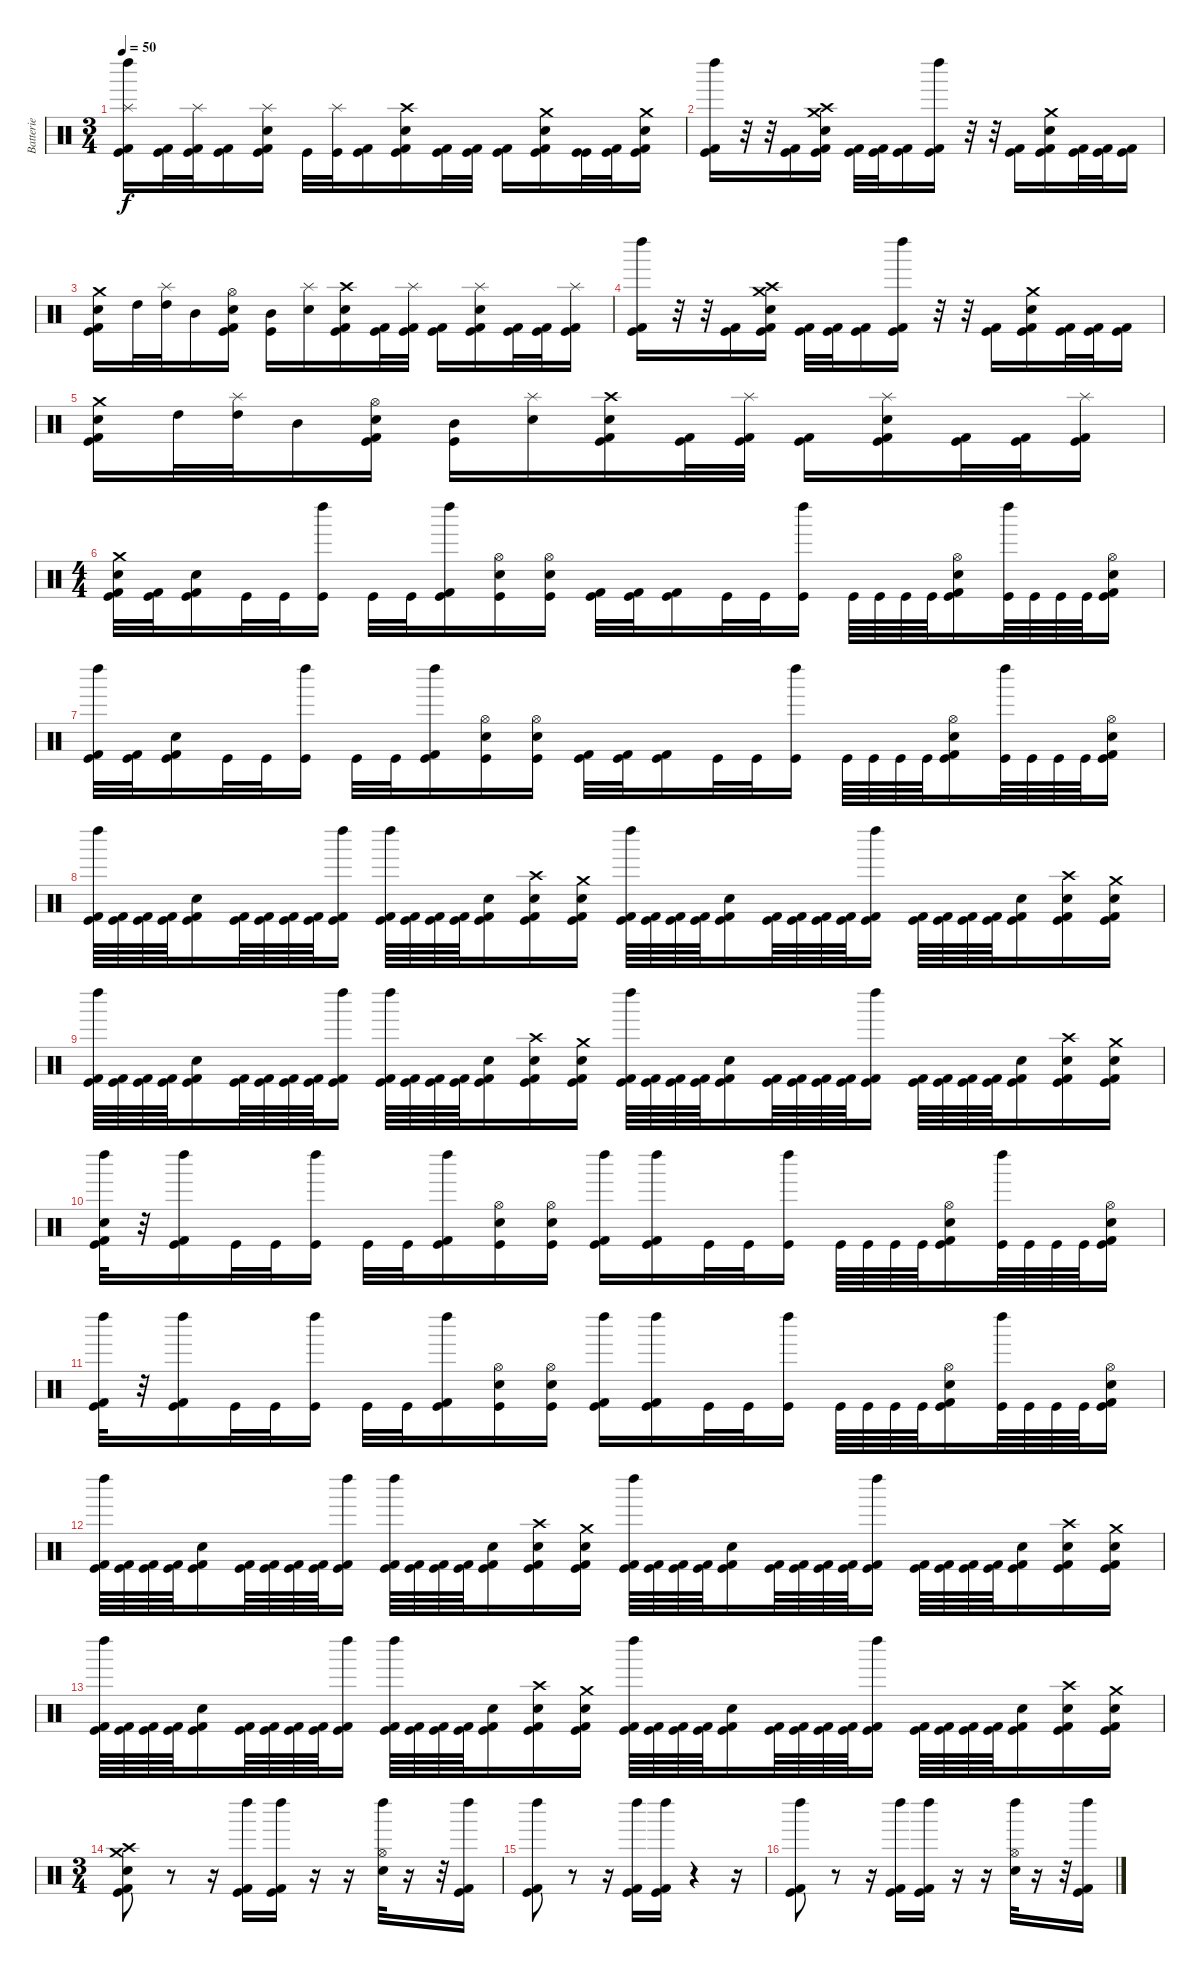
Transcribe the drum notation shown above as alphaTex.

\track ("Batterie" "Batterie") {instrument percussion}
\staff {score}
\articulation defaults
\ts (3 4)
\tempo 50
\clef neutral
\ks c
("Kick (hit)" "Kick (hit) 2" "Left Maraca (hit)" "Splash (hit)").16{dy f} ("Kick (hit)" "Kick (hit) 2").32 ("Kick (hit)" "Kick (hit) 2" "Splash (hit)").32 ("Kick (hit)" "Kick (hit) 2").16 ("Kick (hit)" "Kick (hit) 2" "Electric Snare (hit)" "Splash (hit)").16 "Kick (hit)".32 ("Kick (hit)" "Splash (hit)").32 ("Kick (hit)" "Kick (hit) 2").16 ("Kick (hit)" "Kick (hit) 2" "Electric Snare (hit)" "Crash high (hit)").16 ("Kick (hit)" "Kick (hit) 2").32 ("Kick (hit)" "Kick (hit) 2").32 ("Kick (hit)" "Kick (hit) 2").16 ("Kick (hit)" "Kick (hit) 2" "Electric Snare (hit)" "Crash medium (hit)").16 ("Kick (hit)" "Kick (hit)").32 ("Kick (hit)" "Kick (hit) 2").32 ("Kick (hit)" "Kick (hit) 2" "Electric Snare (hit)" "Crash medium (hit)").16 |
("Kick (hit)" "Kick (hit) 2" "Left Maraca (hit)").16 r.32 r.32 ("Kick (hit)" "Kick (hit) 2").16 ("Kick (hit)" "Kick (hit) 2" "Electric Snare (hit)" "Crash high (hit)" "Crash medium (hit)").16 ("Kick (hit)" "Kick (hit) 2").32 ("Kick (hit)" "Kick (hit) 2").32 ("Kick (hit)" "Kick (hit) 2").16 ("Kick (hit)" "Kick (hit) 2" "Left Maraca (hit)").16 r.32 r.32 ("Kick (hit)" "Kick (hit) 2").16 ("Kick (hit)" "Kick (hit) 2" "Electric Snare (hit)" "Crash medium (hit)").16 ("Kick (hit)" "Kick (hit) 2").32 ("Kick (hit)" "Kick (hit) 2").32 ("Kick (hit)" "Kick (hit) 2").16 |
("Kick (hit)" "Kick (hit) 2" "Electric Snare (hit)" "Crash medium (hit)").16 "High Tom (hit)".32 ("High Tom (hit)" "Splash (hit)").32 "Mid Tom (hit)".16 ("Kick (hit)" "Kick (hit) 2" "Electric Snare (hit)" "Hi-Hat (open)").16 ("Kick (hit)" "Mid Tom (hit)").16 ("Electric Snare (hit)" "Splash (hit)").16 ("Kick (hit)" "Kick (hit) 2" "Electric Snare (hit)" "Crash high (hit)").16 ("Kick (hit)" "Kick (hit) 2").32 ("Kick (hit)" "Kick (hit) 2" "Splash (hit)").32 ("Kick (hit)" "Kick (hit) 2").16 ("Kick (hit)" "Kick (hit) 2" "Electric Snare (hit)" "Splash (hit)").16 ("Kick (hit)" "Kick (hit) 2").32 ("Kick (hit)" "Kick (hit) 2").32 ("Kick (hit)" "Kick (hit) 2" "Splash (hit)").16 |
("Kick (hit)" "Kick (hit) 2" "Left Maraca (hit)").16 r.32 r.32 ("Kick (hit)" "Kick (hit) 2").16 ("Kick (hit)" "Kick (hit) 2" "Electric Snare (hit)" "Crash high (hit)" "Crash medium (hit)").16 ("Kick (hit)" "Kick (hit) 2").32 ("Kick (hit)" "Kick (hit) 2").32 ("Kick (hit)" "Kick (hit) 2").16 ("Kick (hit)" "Kick (hit) 2" "Left Maraca (hit)").16 r.32 r.32 ("Kick (hit)" "Kick (hit) 2").16 ("Kick (hit)" "Kick (hit) 2" "Electric Snare (hit)" "Crash medium (hit)").16 ("Kick (hit)" "Kick (hit) 2").32 ("Kick (hit)" "Kick (hit) 2").32 ("Kick (hit)" "Kick (hit) 2").16 |
("Kick (hit)" "Kick (hit) 2" "Electric Snare (hit)" "Crash medium (hit)").16 "High Tom (hit)".32 ("High Tom (hit)" "Splash (hit)").32 "Mid Tom (hit)".16 ("Kick (hit)" "Kick (hit) 2" "Electric Snare (hit)" "Hi-Hat (open)").16 ("Kick (hit)" "Mid Tom (hit)").16 ("Electric Snare (hit)" "Splash (hit)").16 ("Kick (hit)" "Kick (hit) 2" "Electric Snare (hit)" "Crash high (hit)").16 ("Kick (hit)" "Kick (hit) 2").32 ("Kick (hit)" "Kick (hit) 2" "Splash (hit)").32 ("Kick (hit)" "Kick (hit) 2").16 ("Kick (hit)" "Kick (hit) 2" "Electric Snare (hit)" "Splash (hit)").16 ("Kick (hit)" "Kick (hit) 2").32 ("Kick (hit)" "Kick (hit) 2").32 ("Kick (hit)" "Kick (hit) 2" "Splash (hit)").16 |
\ts (4 4)
("Kick (hit)" "Kick (hit) 2" "Electric Snare (hit)" "Crash medium (hit)").32 ("Kick (hit)" "Kick (hit) 2").32 ("Kick (hit)" "Kick (hit) 2" "Electric Snare (hit)").16 "Kick (hit)".32 "Kick (hit)".32 ("Kick (hit)" "Left Maraca (hit)").16 "Kick (hit)".32 "Kick (hit)".32 ("Kick (hit)" "Kick (hit) 2" "Left Maraca (hit)").16 ("Kick (hit)" "Electric Snare (hit)" "Hi-Hat (open)").16 ("Kick (hit)" "Electric Snare (hit)" "Hi-Hat (open)").16 ("Kick (hit)" "Kick (hit) 2").32 ("Kick (hit)" "Kick (hit) 2").32 ("Kick (hit)" "Kick (hit) 2").16 "Kick (hit)".32 "Kick (hit)".32 ("Kick (hit)" "Left Maraca (hit)").16 "Kick (hit)".64 "Kick (hit)".64 "Kick (hit)".64 "Kick (hit)".64 ("Kick (hit)" "Kick (hit) 2" "Electric Snare (hit)" "Hi-Hat (open)").16 ("Kick (hit)" "Left Maraca (hit)").64 "Kick (hit)".64 "Kick (hit)".64 "Kick (hit)".64 ("Kick (hit)" "Kick (hit) 2" "Electric Snare (hit)" "Hi-Hat (open)").16 |
("Kick (hit)" "Kick (hit) 2" "Left Maraca (hit)").32 ("Kick (hit)" "Kick (hit) 2").32 ("Kick (hit)" "Kick (hit) 2" "Electric Snare (hit)").16 "Kick (hit)".32 "Kick (hit)".32 ("Kick (hit)" "Left Maraca (hit)").16 "Kick (hit)".32 "Kick (hit)".32 ("Kick (hit)" "Kick (hit) 2" "Left Maraca (hit)").16 ("Kick (hit)" "Electric Snare (hit)" "Hi-Hat (open)").16 ("Kick (hit)" "Electric Snare (hit)" "Hi-Hat (open)").16 ("Kick (hit)" "Kick (hit) 2").32 ("Kick (hit)" "Kick (hit) 2").32 ("Kick (hit)" "Kick (hit) 2").16 "Kick (hit)".32 "Kick (hit)".32 ("Kick (hit)" "Left Maraca (hit)").16 "Kick (hit)".64 "Kick (hit)".64 "Kick (hit)".64 "Kick (hit)".64 ("Kick (hit)" "Kick (hit) 2" "Electric Snare (hit)" "Hi-Hat (open)").16 ("Kick (hit)" "Left Maraca (hit)").64 "Kick (hit)".64 "Kick (hit)".64 "Kick (hit)".64 ("Kick (hit)" "Kick (hit) 2" "Electric Snare (hit)" "Hi-Hat (open)").16 |
("Kick (hit)" "Kick (hit) 2" "Left Maraca (hit)").64 ("Kick (hit)" "Kick (hit) 2").64 ("Kick (hit)" "Kick (hit) 2").64 ("Kick (hit)" "Kick (hit) 2").64 ("Kick (hit)" "Kick (hit) 2" "Electric Snare (hit)").16 ("Kick (hit)" "Kick (hit) 2").64 ("Kick (hit)" "Kick (hit) 2").64 ("Kick (hit)" "Kick (hit) 2").64 ("Kick (hit)" "Kick (hit) 2").64 ("Kick (hit)" "Kick (hit) 2" "Left Maraca (hit)").16 ("Kick (hit)" "Kick (hit) 2" "Left Maraca (hit)").64 ("Kick (hit)" "Kick (hit) 2").64 ("Kick (hit)" "Kick (hit) 2").64 ("Kick (hit)" "Kick (hit) 2").64 ("Kick (hit)" "Kick (hit) 2" "Electric Snare (hit)").16 ("Kick (hit)" "Kick (hit) 2" "Electric Snare (hit)" "Crash high (hit)").16 ("Kick (hit)" "Kick (hit) 2" "Electric Snare (hit)" "Crash medium (hit)").16 ("Kick (hit)" "Kick (hit) 2" "Left Maraca (hit)").64 ("Kick (hit)" "Kick (hit) 2").64 ("Kick (hit)" "Kick (hit) 2").64 ("Kick (hit)" "Kick (hit) 2").64 ("Kick (hit)" "Kick (hit) 2" "Electric Snare (hit)").16 ("Kick (hit)" "Kick (hit) 2").64 ("Kick (hit)" "Kick (hit) 2").64 ("Kick (hit)" "Kick (hit) 2").64 ("Kick (hit)" "Kick (hit) 2").64 ("Kick (hit)" "Kick (hit) 2" "Left Maraca (hit)").16 ("Kick (hit)" "Kick (hit) 2").64 ("Kick (hit)" "Kick (hit) 2").64 ("Kick (hit)" "Kick (hit) 2").64 ("Kick (hit)" "Kick (hit) 2").64 ("Kick (hit)" "Kick (hit) 2" "Electric Snare (hit)").16 ("Kick (hit)" "Kick (hit) 2" "Electric Snare (hit)" "Crash high (hit)").16 ("Kick (hit)" "Kick (hit) 2" "Electric Snare (hit)" "Crash medium (hit)").16 |
("Kick (hit)" "Kick (hit) 2" "Left Maraca (hit)").64 ("Kick (hit)" "Kick (hit) 2").64 ("Kick (hit)" "Kick (hit) 2").64 ("Kick (hit)" "Kick (hit) 2").64 ("Kick (hit)" "Kick (hit) 2" "Electric Snare (hit)").16 ("Kick (hit)" "Kick (hit) 2").64 ("Kick (hit)" "Kick (hit) 2").64 ("Kick (hit)" "Kick (hit) 2").64 ("Kick (hit)" "Kick (hit) 2").64 ("Kick (hit)" "Kick (hit) 2" "Left Maraca (hit)").16 ("Kick (hit)" "Kick (hit) 2" "Left Maraca (hit)").64 ("Kick (hit)" "Kick (hit) 2").64 ("Kick (hit)" "Kick (hit) 2").64 ("Kick (hit)" "Kick (hit) 2").64 ("Kick (hit)" "Kick (hit) 2" "Electric Snare (hit)").16 ("Kick (hit)" "Kick (hit) 2" "Electric Snare (hit)" "Crash high (hit)").16 ("Kick (hit)" "Kick (hit) 2" "Electric Snare (hit)" "Crash medium (hit)").16 ("Kick (hit)" "Kick (hit) 2" "Left Maraca (hit)").64 ("Kick (hit)" "Kick (hit) 2").64 ("Kick (hit)" "Kick (hit) 2").64 ("Kick (hit)" "Kick (hit) 2").64 ("Kick (hit)" "Kick (hit) 2" "Electric Snare (hit)").16 ("Kick (hit)" "Kick (hit) 2").64 ("Kick (hit)" "Kick (hit) 2").64 ("Kick (hit)" "Kick (hit) 2").64 ("Kick (hit)" "Kick (hit) 2").64 ("Kick (hit)" "Kick (hit) 2" "Left Maraca (hit)").16 ("Kick (hit)" "Kick (hit) 2").64 ("Kick (hit)" "Kick (hit) 2").64 ("Kick (hit)" "Kick (hit) 2").64 ("Kick (hit)" "Kick (hit) 2").64 ("Kick (hit)" "Kick (hit) 2" "Electric Snare (hit)").16 ("Kick (hit)" "Kick (hit) 2" "Electric Snare (hit)" "Crash high (hit)").16 ("Kick (hit)" "Kick (hit) 2" "Electric Snare (hit)" "Crash medium (hit)").16 |
("Kick (hit)" "Kick (hit) 2" "Electric Snare (hit)" "Left Maraca (hit)").32 r.32 ("Kick (hit)" "Kick (hit) 2" "Left Maraca (hit)").16 "Kick (hit)".32 "Kick (hit)".32 ("Kick (hit)" "Left Maraca (hit)").16 "Kick (hit)".32 "Kick (hit)".32 ("Kick (hit)" "Kick (hit) 2" "Left Maraca (hit)").16 ("Kick (hit)" "Electric Snare (hit)" "Hi-Hat (open)").16 ("Kick (hit)" "Electric Snare (hit)" "Hi-Hat (open)").16 ("Kick (hit)" "Kick (hit) 2" "Left Maraca (hit)").16 ("Kick (hit)" "Kick (hit) 2" "Left Maraca (hit)").16 "Kick (hit)".32 "Kick (hit)".32 ("Kick (hit)" "Left Maraca (hit)").16 "Kick (hit)".64 "Kick (hit)".64 "Kick (hit)".64 "Kick (hit)".64 ("Kick (hit)" "Kick (hit) 2" "Electric Snare (hit)" "Hi-Hat (open)").16 ("Kick (hit)" "Left Maraca (hit)").64 "Kick (hit)".64 "Kick (hit)".64 "Kick (hit)".64 ("Kick (hit)" "Kick (hit) 2" "Electric Snare (hit)" "Hi-Hat (open)").16 |
("Kick (hit)" "Kick (hit) 2" "Left Maraca (hit)").32 r.32 ("Kick (hit)" "Kick (hit) 2" "Left Maraca (hit)").16 "Kick (hit)".32 "Kick (hit)".32 ("Kick (hit)" "Left Maraca (hit)").16 "Kick (hit)".32 "Kick (hit)".32 ("Kick (hit)" "Kick (hit) 2" "Left Maraca (hit)").16 ("Kick (hit)" "Electric Snare (hit)" "Hi-Hat (open)").16 ("Kick (hit)" "Electric Snare (hit)" "Hi-Hat (open)").16 ("Kick (hit)" "Kick (hit) 2" "Left Maraca (hit)").16 ("Kick (hit)" "Kick (hit) 2" "Left Maraca (hit)").16 "Kick (hit)".32 "Kick (hit)".32 ("Kick (hit)" "Left Maraca (hit)").16 "Kick (hit)".64 "Kick (hit)".64 "Kick (hit)".64 "Kick (hit)".64 ("Kick (hit)" "Kick (hit) 2" "Electric Snare (hit)" "Hi-Hat (open)").16 ("Kick (hit)" "Left Maraca (hit)").64 "Kick (hit)".64 "Kick (hit)".64 "Kick (hit)".64 ("Kick (hit)" "Kick (hit) 2" "Electric Snare (hit)" "Hi-Hat (open)").16 |
("Kick (hit)" "Kick (hit) 2" "Left Maraca (hit)").64 ("Kick (hit)" "Kick (hit) 2").64 ("Kick (hit)" "Kick (hit) 2").64 ("Kick (hit)" "Kick (hit) 2").64 ("Kick (hit)" "Kick (hit) 2" "Electric Snare (hit)").16 ("Kick (hit)" "Kick (hit) 2").64 ("Kick (hit)" "Kick (hit) 2").64 ("Kick (hit)" "Kick (hit) 2").64 ("Kick (hit)" "Kick (hit) 2").64 ("Kick (hit)" "Kick (hit) 2" "Left Maraca (hit)").16 ("Kick (hit)" "Kick (hit) 2" "Left Maraca (hit)").64 ("Kick (hit)" "Kick (hit) 2").64 ("Kick (hit)" "Kick (hit) 2").64 ("Kick (hit)" "Kick (hit) 2").64 ("Kick (hit)" "Kick (hit) 2" "Electric Snare (hit)").16 ("Kick (hit)" "Kick (hit) 2" "Electric Snare (hit)" "Crash high (hit)").16 ("Kick (hit)" "Kick (hit) 2" "Electric Snare (hit)" "Crash medium (hit)").16 ("Kick (hit)" "Kick (hit) 2" "Left Maraca (hit)").64 ("Kick (hit)" "Kick (hit) 2").64 ("Kick (hit)" "Kick (hit) 2").64 ("Kick (hit)" "Kick (hit) 2").64 ("Kick (hit)" "Kick (hit) 2" "Electric Snare (hit)").16 ("Kick (hit)" "Kick (hit) 2").64 ("Kick (hit)" "Kick (hit) 2").64 ("Kick (hit)" "Kick (hit) 2").64 ("Kick (hit)" "Kick (hit) 2").64 ("Kick (hit)" "Kick (hit) 2" "Left Maraca (hit)").16 ("Kick (hit)" "Kick (hit) 2").64 ("Kick (hit)" "Kick (hit) 2").64 ("Kick (hit)" "Kick (hit) 2").64 ("Kick (hit)" "Kick (hit) 2").64 ("Kick (hit)" "Kick (hit) 2" "Electric Snare (hit)").16 ("Kick (hit)" "Kick (hit) 2" "Electric Snare (hit)" "Crash high (hit)").16 ("Kick (hit)" "Kick (hit) 2" "Electric Snare (hit)" "Crash medium (hit)").16 |
("Kick (hit)" "Kick (hit) 2" "Left Maraca (hit)").64 ("Kick (hit)" "Kick (hit) 2").64 ("Kick (hit)" "Kick (hit) 2").64 ("Kick (hit)" "Kick (hit) 2").64 ("Kick (hit)" "Kick (hit) 2" "Electric Snare (hit)").16 ("Kick (hit)" "Kick (hit) 2").64 ("Kick (hit)" "Kick (hit) 2").64 ("Kick (hit)" "Kick (hit) 2").64 ("Kick (hit)" "Kick (hit) 2").64 ("Kick (hit)" "Kick (hit) 2" "Left Maraca (hit)").16 ("Kick (hit)" "Kick (hit) 2" "Left Maraca (hit)").64 ("Kick (hit)" "Kick (hit) 2").64 ("Kick (hit)" "Kick (hit) 2").64 ("Kick (hit)" "Kick (hit) 2").64 ("Kick (hit)" "Kick (hit) 2" "Electric Snare (hit)").16 ("Kick (hit)" "Kick (hit) 2" "Electric Snare (hit)" "Crash high (hit)").16 ("Kick (hit)" "Kick (hit) 2" "Electric Snare (hit)" "Crash medium (hit)").16 ("Kick (hit)" "Kick (hit) 2" "Left Maraca (hit)").64 ("Kick (hit)" "Kick (hit) 2").64 ("Kick (hit)" "Kick (hit) 2").64 ("Kick (hit)" "Kick (hit) 2").64 ("Kick (hit)" "Kick (hit) 2" "Electric Snare (hit)").16 ("Kick (hit)" "Kick (hit) 2").64 ("Kick (hit)" "Kick (hit) 2").64 ("Kick (hit)" "Kick (hit) 2").64 ("Kick (hit)" "Kick (hit) 2").64 ("Kick (hit)" "Kick (hit) 2" "Left Maraca (hit)").16 ("Kick (hit)" "Kick (hit) 2").64 ("Kick (hit)" "Kick (hit) 2").64 ("Kick (hit)" "Kick (hit) 2").64 ("Kick (hit)" "Kick (hit) 2").64 ("Kick (hit)" "Kick (hit) 2" "Electric Snare (hit)").16 ("Kick (hit)" "Kick (hit) 2" "Electric Snare (hit)" "Crash high (hit)").16 ("Kick (hit)" "Kick (hit) 2" "Electric Snare (hit)" "Crash medium (hit)").16 |
\ts (3 4)
("Kick (hit)" "Kick (hit) 2" "Electric Snare (hit)" "Crash high (hit)" "Crash medium (hit)").8 r.8 r.16 ("Kick (hit)" "Kick (hit) 2" "Left Maraca (hit)").16 ("Kick (hit)" "Kick (hit) 2" "Left Maraca (hit)").16 r.16 r.16 ("Electric Snare (hit)" "Hi-Hat (open)" "Left Maraca (hit)").32 r.16 r.32 ("Kick (hit)" "Kick (hit) 2" "Left Maraca (hit)").16 |
("Kick (hit)" "Kick (hit) 2" "Left Maraca (hit)").8 r.8 r.16 ("Kick (hit)" "Kick (hit) 2" "Left Maraca (hit)").16 ("Kick (hit)" "Kick (hit) 2" "Left Maraca (hit)").16 r.4 r.16 |
("Kick (hit)" "Kick (hit) 2" "Left Maraca (hit)").8 r.8 r.16 ("Kick (hit)" "Kick (hit) 2" "Left Maraca (hit)").16 ("Kick (hit)" "Kick (hit) 2" "Left Maraca (hit)").16 r.16 r.16 ("Electric Snare (hit)" "Hi-Hat (open)" "Left Maraca (hit)").32 r.16 r.32 ("Kick (hit)" "Kick (hit) 2" "Left Maraca (hit)").16
